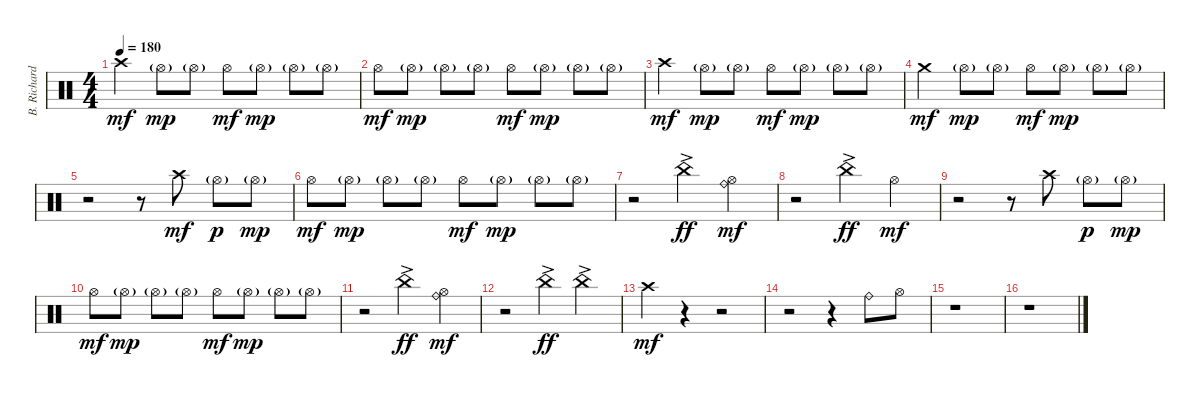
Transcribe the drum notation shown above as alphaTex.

\track ("B. Richardson Drums" "B. Richard") {instrument percussion}
\staff {score}
\articulation defaults
\ts (4 4)
\tempo 180
\clef neutral
\ks c "Crash high (hit)".4{dy mf} "Hi-Hat (open)"{g}.8{dy mp} "Hi-Hat (open)"{g}.8 "Hi-Hat (open)".8{dy mf} "Hi-Hat (open)"{g}.8{dy mp} "Hi-Hat (open)"{g}.8 "Hi-Hat (open)"{g}.8
|
"Hi-Hat (open)".8{dy mf} "Hi-Hat (open)"{g}.8{dy mp} "Hi-Hat (open)"{g}.8 "Hi-Hat (open)"{g}.8 "Hi-Hat (open)".8{dy mf} "Hi-Hat (open)"{g}.8{dy mp} "Hi-Hat (open)"{g}.8 "Hi-Hat (open)"{g}.8 |
"Crash high (hit)".4{dy mf} "Hi-Hat (open)"{g}.8{dy mp} "Hi-Hat (open)"{g}.8 "Hi-Hat (open)".8{dy mf} "Hi-Hat (open)"{g}.8{dy mp} "Hi-Hat (open)"{g}.8 "Hi-Hat (open)"{g}.8 |
"Crash medium (hit)".4{dy mf} "Hi-Hat (open)"{g}.8{dy mp} "Hi-Hat (open)"{g}.8 "Hi-Hat (open)".8{dy mf} "Hi-Hat (open)"{g}.8{dy mp} "Hi-Hat (open)"{g}.8 "Hi-Hat (open)"{g}.8 |
r.2 r.8 "Crash high (hit)".8{dy mf} "Hi-Hat (open)"{g}.8{dy p} "Hi-Hat (open)"{g}.8{dy mp} |
"Hi-Hat (open)".8{dy mf} "Hi-Hat (open)"{g}.8{dy mp} "Hi-Hat (open)"{g}.8 "Hi-Hat (open)"{g}.8 "Hi-Hat (open)".8{dy mf} "Hi-Hat (open)"{g}.8{dy mp} "Hi-Hat (open)"{g}.8 "Hi-Hat (open)"{g}.8 |
r.2 "China (hit)"{ac}.4{dy ff} ("Ride (bell)" "Hi-Hat (open)").4{dy mf} |
r.2 "China (hit)"{ac}.4{dy ff} "Hi-Hat (open)".4{dy mf} |
r.2 r.8 "Crash high (hit)".8 "Hi-Hat (open)"{g}.8{dy p} "Hi-Hat (open)"{g}.8{dy mp} |
"Hi-Hat (open)".8{dy mf} "Hi-Hat (open)"{g}.8{dy mp} "Hi-Hat (open)"{g}.8 "Hi-Hat (open)"{g}.8 "Hi-Hat (open)".8{dy mf} "Hi-Hat (open)"{g}.8{dy mp} "Hi-Hat (open)"{g}.8 "Hi-Hat (open)"{g}.8 |
r.2 "China (hit)"{ac}.4{dy ff} ("Ride (bell)" "Hi-Hat (open)").4{dy mf} |
r.2 "China (hit)"{ac}.4{dy ff} "China (hit)"{ac}.4 |
"Crash high (hit)".4{dy mf} r.4 r.2 |
r.2 r.4 "Ride (bell)".8 "Hi-Hat (open)".8 |
r.1 |
r.1
